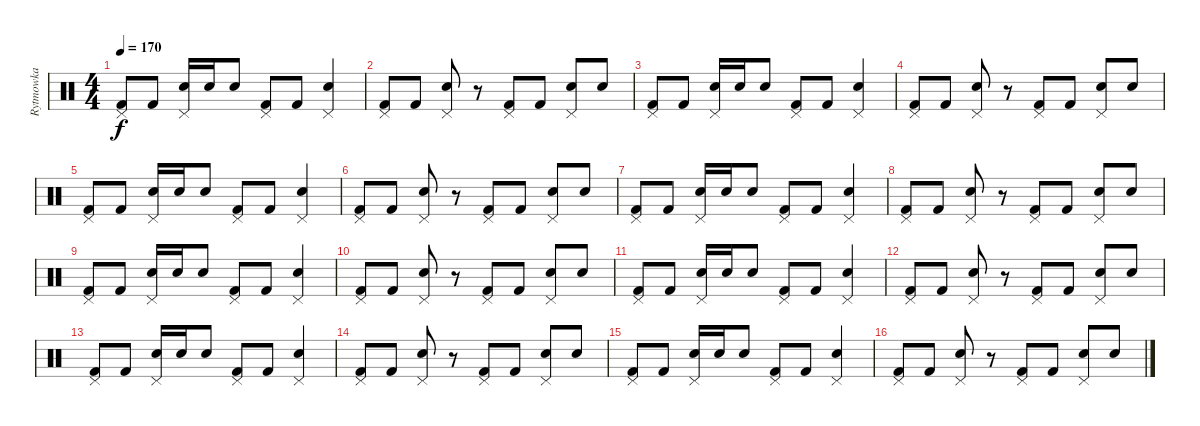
\track ("Rytmowka" "Rytmowka") {instrument percussion}
\staff {score}
\articulation defaults
\ts (4 4)
\tempo 170
\clef neutral
\ks c
("Pedal Hi-Hat (hit)" "Kick (hit) 2").8{dy f} "Kick (hit) 2".8 ("Pedal Hi-Hat (hit)" "Snare (hit) 2").16 "Snare (hit) 2".16 "Snare (hit) 2".8 ("Pedal Hi-Hat (hit)" "Kick (hit) 2").8 "Kick (hit) 2".8 ("Pedal Hi-Hat (hit)" "Snare (hit) 2").4 |
("Pedal Hi-Hat (hit)" "Kick (hit) 2").8 "Kick (hit) 2".8 ("Pedal Hi-Hat (hit)" "Snare (hit) 2").8 r.8 ("Pedal Hi-Hat (hit)" "Kick (hit) 2").8 "Kick (hit) 2".8 ("Pedal Hi-Hat (hit)" "Snare (hit) 2").8 "Snare (hit) 2".8 |
("Pedal Hi-Hat (hit)" "Kick (hit) 2").8 "Kick (hit) 2".8 ("Pedal Hi-Hat (hit)" "Snare (hit) 2").16 "Snare (hit) 2".16 "Snare (hit) 2".8 ("Pedal Hi-Hat (hit)" "Kick (hit) 2").8 "Kick (hit) 2".8 ("Pedal Hi-Hat (hit)" "Snare (hit) 2").4 |
("Pedal Hi-Hat (hit)" "Kick (hit) 2").8 "Kick (hit) 2".8 ("Pedal Hi-Hat (hit)" "Snare (hit) 2").8 r.8 ("Pedal Hi-Hat (hit)" "Kick (hit) 2").8 "Kick (hit) 2".8 ("Pedal Hi-Hat (hit)" "Snare (hit) 2").8 "Snare (hit) 2".8 |
("Pedal Hi-Hat (hit)" "Kick (hit) 2").8 "Kick (hit) 2".8 ("Pedal Hi-Hat (hit)" "Snare (hit) 2").16 "Snare (hit) 2".16 "Snare (hit) 2".8 ("Pedal Hi-Hat (hit)" "Kick (hit) 2").8 "Kick (hit) 2".8 ("Pedal Hi-Hat (hit)" "Snare (hit) 2").4 |
("Pedal Hi-Hat (hit)" "Kick (hit) 2").8 "Kick (hit) 2".8 ("Pedal Hi-Hat (hit)" "Snare (hit) 2").8 r.8 ("Pedal Hi-Hat (hit)" "Kick (hit) 2").8 "Kick (hit) 2".8 ("Pedal Hi-Hat (hit)" "Snare (hit) 2").8 "Snare (hit) 2".8 |
("Pedal Hi-Hat (hit)" "Kick (hit) 2").8 "Kick (hit) 2".8 ("Pedal Hi-Hat (hit)" "Snare (hit) 2").16 "Snare (hit) 2".16 "Snare (hit) 2".8 ("Pedal Hi-Hat (hit)" "Kick (hit) 2").8 "Kick (hit) 2".8 ("Pedal Hi-Hat (hit)" "Snare (hit) 2").4 |
("Pedal Hi-Hat (hit)" "Kick (hit) 2").8 "Kick (hit) 2".8 ("Pedal Hi-Hat (hit)" "Snare (hit) 2").8 r.8 ("Pedal Hi-Hat (hit)" "Kick (hit) 2").8 "Kick (hit) 2".8 ("Pedal Hi-Hat (hit)" "Snare (hit) 2").8 "Snare (hit) 2".8 |
("Pedal Hi-Hat (hit)" "Kick (hit) 2").8 "Kick (hit) 2".8 ("Pedal Hi-Hat (hit)" "Snare (hit) 2").16 "Snare (hit) 2".16 "Snare (hit) 2".8 ("Pedal Hi-Hat (hit)" "Kick (hit) 2").8 "Kick (hit) 2".8 ("Pedal Hi-Hat (hit)" "Snare (hit) 2").4 |
("Pedal Hi-Hat (hit)" "Kick (hit) 2").8 "Kick (hit) 2".8 ("Pedal Hi-Hat (hit)" "Snare (hit) 2").8 r.8 ("Pedal Hi-Hat (hit)" "Kick (hit) 2").8 "Kick (hit) 2".8 ("Pedal Hi-Hat (hit)" "Snare (hit) 2").8 "Snare (hit) 2".8 |
("Pedal Hi-Hat (hit)" "Kick (hit) 2").8 "Kick (hit) 2".8 ("Pedal Hi-Hat (hit)" "Snare (hit) 2").16 "Snare (hit) 2".16 "Snare (hit) 2".8 ("Pedal Hi-Hat (hit)" "Kick (hit) 2").8 "Kick (hit) 2".8 ("Pedal Hi-Hat (hit)" "Snare (hit) 2").4 |
("Pedal Hi-Hat (hit)" "Kick (hit) 2").8 "Kick (hit) 2".8 ("Pedal Hi-Hat (hit)" "Snare (hit) 2").8 r.8 ("Pedal Hi-Hat (hit)" "Kick (hit) 2").8 "Kick (hit) 2".8 ("Pedal Hi-Hat (hit)" "Snare (hit) 2").8 "Snare (hit) 2".8 |
("Pedal Hi-Hat (hit)" "Kick (hit) 2").8 "Kick (hit) 2".8 ("Pedal Hi-Hat (hit)" "Snare (hit) 2").16 "Snare (hit) 2".16 "Snare (hit) 2".8 ("Pedal Hi-Hat (hit)" "Kick (hit) 2").8 "Kick (hit) 2".8 ("Pedal Hi-Hat (hit)" "Snare (hit) 2").4 |
("Pedal Hi-Hat (hit)" "Kick (hit) 2").8 "Kick (hit) 2".8 ("Pedal Hi-Hat (hit)" "Snare (hit) 2").8 r.8 ("Pedal Hi-Hat (hit)" "Kick (hit) 2").8 "Kick (hit) 2".8 ("Pedal Hi-Hat (hit)" "Snare (hit) 2").8 "Snare (hit) 2".8 |
("Pedal Hi-Hat (hit)" "Kick (hit) 2").8 "Kick (hit) 2".8 ("Pedal Hi-Hat (hit)" "Snare (hit) 2").16 "Snare (hit) 2".16 "Snare (hit) 2".8 ("Pedal Hi-Hat (hit)" "Kick (hit) 2").8 "Kick (hit) 2".8 ("Pedal Hi-Hat (hit)" "Snare (hit) 2").4 |
("Pedal Hi-Hat (hit)" "Kick (hit) 2").8 "Kick (hit) 2".8 ("Pedal Hi-Hat (hit)" "Snare (hit) 2").8 r.8 ("Pedal Hi-Hat (hit)" "Kick (hit) 2").8 "Kick (hit) 2".8 ("Pedal Hi-Hat (hit)" "Snare (hit) 2").8 "Snare (hit) 2".8
